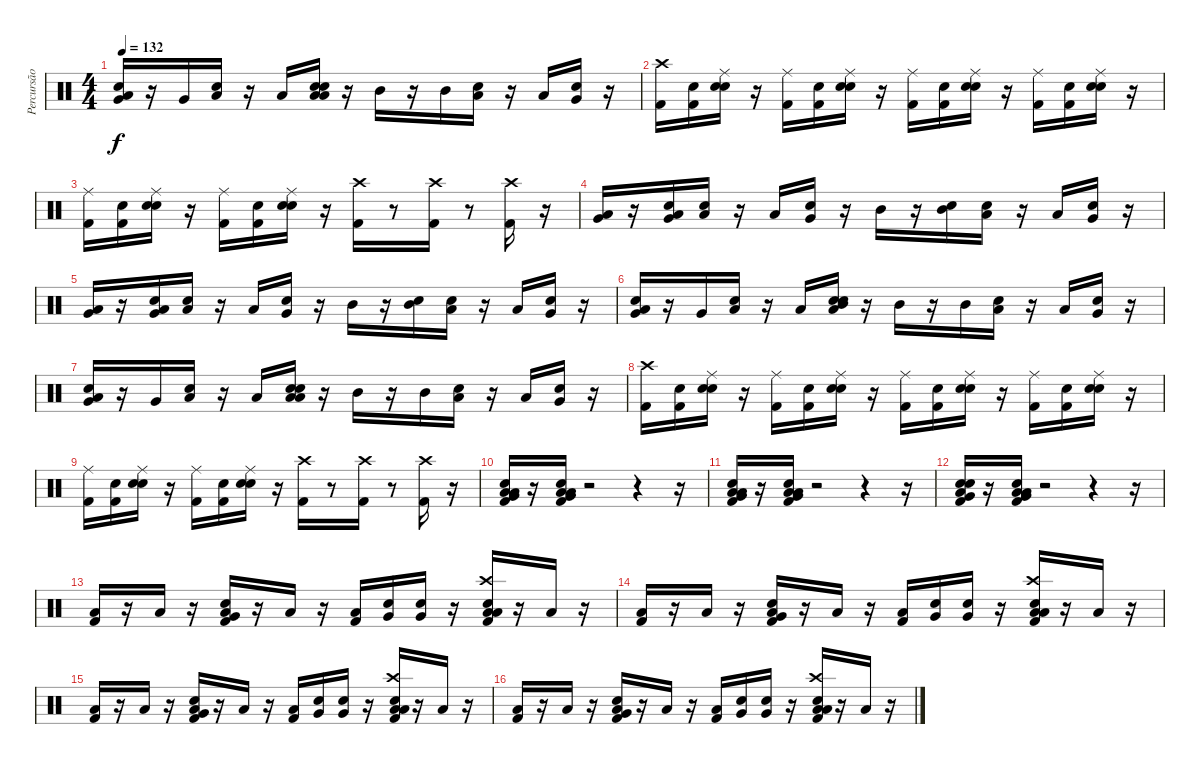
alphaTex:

\track ("Percursão" "Percursão") {instrument percussion}
\staff {score}
\articulation defaults
\ts (4 4)
\tempo 132
\clef neutral
\ks c
("Low Floor Tom (hit)" "Electric Snare (hit)" "Very Low Tom (hit)").16{dy f} r.16 "Very Low Tom (hit)".16 ("Snare (hit)" "Low Floor Tom (hit)").16 r.16 "Low Floor Tom (hit)".16 ("Snare (hit)" "Electric Snare (hit)" "Low Floor Tom (hit)" "Low Tom (hit)").16 r.16 "Mid Tom (hit)".16 r.16 "Mid Tom (hit)".16 ("Snare (hit)" "Low Tom (hit)").16 r.16 "Low Tom (hit)".16 ("Snare (hit)" "Very Low Tom (hit)").16 r.16 |
("Crash high (hit)" "Kick (hit) 2").16 ("Snare (hit)" "Kick (hit) 2").16 ("Snare (hit)" "Ride (middle)" "Electric Snare (hit)").16 r.16 ("Ride (middle)" "Kick (hit) 2").16 ("Snare (hit)" "Kick (hit) 2").16 ("Snare (hit)" "Ride (middle)" "Electric Snare (hit)").16 r.16 ("Ride (middle)" "Kick (hit) 2").16 ("Snare (hit)" "Kick (hit) 2").16 ("Snare (hit)" "Ride (middle)" "Electric Snare (hit)").16 r.16 ("Ride (middle)" "Kick (hit) 2").16 ("Snare (hit)" "Kick (hit) 2").16 ("Snare (hit)" "Ride (middle)" "Electric Snare (hit)").16 r.16 |
("Ride (middle)" "Kick (hit) 2").16 ("Snare (hit)" "Kick (hit) 2").16 ("Snare (hit)" "Ride (middle)" "Electric Snare (hit)").16 r.16 ("Ride (middle)" "Kick (hit) 2").16 ("Snare (hit)" "Kick (hit) 2").16 ("Snare (hit)" "Ride (middle)" "Electric Snare (hit)").16 r.16 ("Crash high (hit)" "Kick (hit) 2").16 r.8 ("Crash high (hit)" "Kick (hit) 2").16 r.8 ("Crash high (hit)" "Kick (hit) 2").16 r.16 |
("Very Low Tom (hit)" "Low Floor Tom (hit)").16 r.16 ("Electric Snare (hit)" "Low Floor Tom (hit)" "Very Low Tom (hit)").16 ("Snare (hit)" "Low Floor Tom (hit)").16 r.16 "Low Floor Tom (hit)".16 ("Snare (hit)" "Very Low Tom (hit)").16 r.16 "Mid Tom (hit)".16 r.16 ("Mid Tom (hit)" "Snare (hit) 2").16 ("Snare (hit)" "Low Tom (hit)").16 r.16 "Low Tom (hit)".16 ("Snare (hit)" "Very Low Tom (hit)").16 r.16 |
("Very Low Tom (hit)" "Low Floor Tom (hit)").16 r.16 ("Electric Snare (hit)" "Low Floor Tom (hit)" "Very Low Tom (hit)").16 ("Snare (hit)" "Low Floor Tom (hit)").16 r.16 "Low Floor Tom (hit)".16 ("Snare (hit)" "Very Low Tom (hit)").16 r.16 "Mid Tom (hit)".16 r.16 ("Mid Tom (hit)" "Snare (hit) 2").16 ("Snare (hit)" "Low Tom (hit)").16 r.16 "Low Tom (hit)".16 ("Snare (hit)" "Very Low Tom (hit)").16 r.16 |
("Electric Snare (hit)" "Low Floor Tom (hit)" "Very Low Tom (hit)").16 r.16 "Very Low Tom (hit)".16 ("Snare (hit)" "Low Floor Tom (hit)").16 r.16 "Low Floor Tom (hit)".16 ("Snare (hit)" "Electric Snare (hit)" "Low Floor Tom (hit)" "Mid Tom (hit)").16 r.16 "Mid Tom (hit)".16 r.16 "Mid Tom (hit)".16 ("Snare (hit)" "Low Tom (hit)").16 r.16 "Low Tom (hit)".16 ("Snare (hit)" "Very Low Tom (hit)").16 r.16 |
("Low Floor Tom (hit)" "Electric Snare (hit)" "Very Low Tom (hit)").16 r.16 "Very Low Tom (hit)".16 ("Snare (hit)" "Low Floor Tom (hit)").16 r.16 "Low Floor Tom (hit)".16 ("Snare (hit)" "Electric Snare (hit)" "Low Floor Tom (hit)" "Low Tom (hit)").16 r.16 "Mid Tom (hit)".16 r.16 "Mid Tom (hit)".16 ("Snare (hit)" "Low Tom (hit)").16 r.16 "Low Tom (hit)".16 ("Snare (hit)" "Very Low Tom (hit)").16 r.16 |
("Crash high (hit)" "Kick (hit) 2").16 ("Snare (hit)" "Kick (hit) 2").16 ("Snare (hit)" "Ride (middle)" "Electric Snare (hit)").16 r.16 ("Ride (middle)" "Kick (hit) 2").16 ("Snare (hit)" "Kick (hit) 2").16 ("Snare (hit)" "Ride (middle)" "Electric Snare (hit)").16 r.16 ("Ride (middle)" "Kick (hit) 2").16 ("Snare (hit)" "Kick (hit) 2").16 ("Snare (hit)" "Ride (middle)" "Electric Snare (hit)").16 r.16 ("Ride (middle)" "Kick (hit) 2").16 ("Snare (hit)" "Kick (hit) 2").16 ("Snare (hit)" "Ride (middle)" "Electric Snare (hit)").16 r.16 |
("Ride (middle)" "Kick (hit) 2").16 ("Snare (hit)" "Kick (hit) 2").16 ("Snare (hit)" "Ride (middle)" "Electric Snare (hit)").16 r.16 ("Ride (middle)" "Kick (hit) 2").16 ("Snare (hit)" "Kick (hit) 2").16 ("Snare (hit)" "Ride (middle)" "Electric Snare (hit)").16 r.16 ("Crash high (hit)" "Kick (hit) 2").16 r.8 ("Crash high (hit)" "Kick (hit) 2").16 r.8 ("Crash high (hit)" "Kick (hit) 2").16 r.16 |
("Very Low Tom (hit)" "Low Floor Tom (hit)" "Low Tom (hit)" "Kick (hit) 2" "Snare (hit) 2").16 r.16 ("Kick (hit) 2" "Very Low Tom (hit)" "Low Floor Tom (hit)" "Low Tom (hit)" "Snare (hit) 2").16 r.2 r.4 r.16 |
("Very Low Tom (hit)" "Low Tom (hit)" "Low Floor Tom (hit)" "Kick (hit) 2" "Snare (hit) 2").16 r.16 ("Kick (hit) 2" "Very Low Tom (hit)" "Low Floor Tom (hit)" "Low Tom (hit)" "Snare (hit) 2").16 r.2 r.4 r.16 |
("Electric Snare (hit)" "Very Low Tom (hit)" "Kick (hit) 2" "Low Floor Tom (hit)" "Snare (hit) 2").16 r.16 ("Low Floor Tom (hit)" "Very Low Tom (hit)" "Kick (hit) 2" "Low Tom (hit)" "Snare (hit) 2").16 r.2 r.4 r.16 |
("Kick (hit) 2" "Low Tom (hit)").16 r.16 "Low Tom (hit)".16 r.16 ("Kick (hit) 2" "Low Tom (hit)" "Very Low Tom (hit)" "Snare (hit) 2").16 r.16 "Low Tom (hit)".16 r.16 ("Kick (hit) 2" "Low Tom (hit)").16 ("Snare (hit)" "Very Low Tom (hit)").16 ("Snare (hit)" "Very Low Tom (hit)").16 r.16 ("Kick (hit) 2" "Snare (hit) 2" "Crash high (hit)" "Low Tom (hit)" "Low Floor Tom (hit)").16 r.16 "Low Tom (hit)".16 r.16 |
("Kick (hit) 2" "Low Tom (hit)").16 r.16 "Low Tom (hit)".16 r.16 ("Kick (hit) 2" "Low Tom (hit)" "Very Low Tom (hit)" "Snare (hit) 2").16 r.16 "Low Tom (hit)".16 r.16 ("Kick (hit) 2" "Low Tom (hit)").16 ("Snare (hit)" "Very Low Tom (hit)").16 ("Snare (hit)" "Very Low Tom (hit)").16 r.16 ("Kick (hit) 2" "Snare (hit) 2" "Crash high (hit)" "Low Tom (hit)" "Low Floor Tom (hit)").16 r.16 "Low Tom (hit)".16 r.16 |
("Kick (hit) 2" "Low Tom (hit)").16 r.16 "Low Tom (hit)".16 r.16 ("Kick (hit) 2" "Low Tom (hit)" "Very Low Tom (hit)" "Snare (hit) 2").16 r.16 "Low Tom (hit)".16 r.16 ("Kick (hit) 2" "Low Tom (hit)").16 ("Snare (hit)" "Very Low Tom (hit)").16 ("Snare (hit)" "Very Low Tom (hit)").16 r.16 ("Kick (hit) 2" "Snare (hit) 2" "Crash high (hit)" "Low Tom (hit)" "Low Floor Tom (hit)").16 r.16 "Low Tom (hit)".16 r.16 |
("Kick (hit) 2" "Low Tom (hit)").16 r.16 "Low Tom (hit)".16 r.16 ("Kick (hit) 2" "Low Tom (hit)" "Very Low Tom (hit)" "Snare (hit) 2").16 r.16 "Low Tom (hit)".16 r.16 ("Kick (hit) 2" "Low Tom (hit)").16 ("Snare (hit)" "Very Low Tom (hit)").16 ("Snare (hit)" "Very Low Tom (hit)").16 r.16 ("Kick (hit) 2" "Snare (hit) 2" "Crash high (hit)" "Low Tom (hit)" "Low Floor Tom (hit)").16 r.16 "Low Tom (hit)".16 r.16
